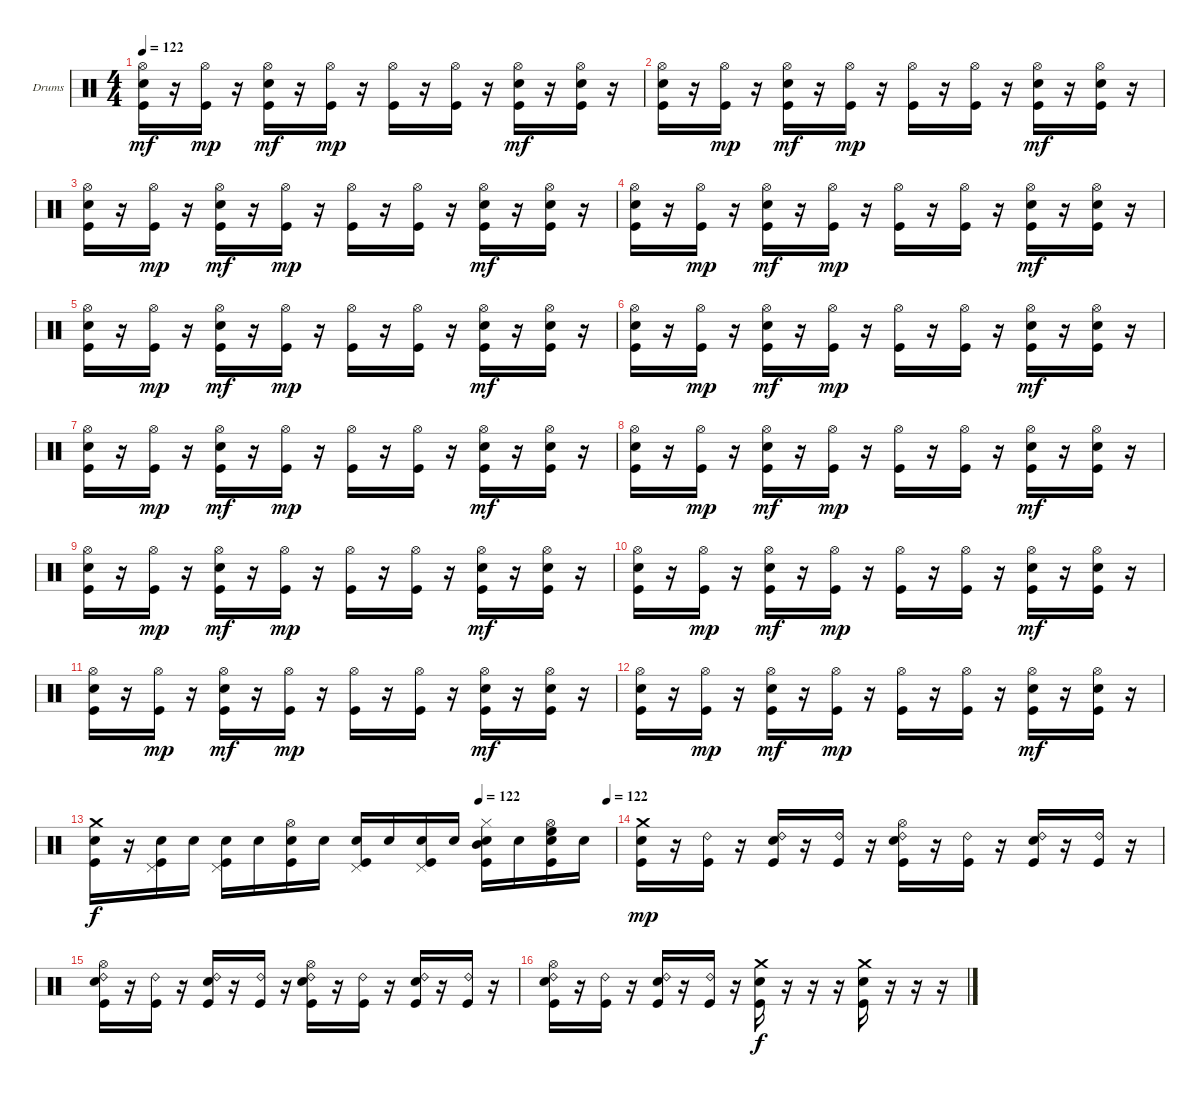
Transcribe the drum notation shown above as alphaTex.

\bracketExtendMode groupsimilarinstruments
\firstSystemTrackNameOrientation horizontal
\otherSystemsTrackNameOrientation horizontal
\track ("Drumkit" "Drums") {instrument percussion}
\staff {score}
\articulation defaults
\ts (4 4)
\tempo 122
\clef neutral
\ks c
("Hi-Hat (open)" "Snare (hit) 2" "Kick (hit)").16{dy mf} r.16 ("Hi-Hat (open)" "Kick (hit)").16{dy mp} r.16 ("Hi-Hat (open)" "Snare (hit) 2" "Kick (hit)").16{dy mf} r.16 ("Hi-Hat (open)" "Kick (hit)").16{dy mp} r.16 ("Hi-Hat (open)" "Kick (hit)").16 r.16 ("Hi-Hat (open)" "Kick (hit)").16 r.16 ("Hi-Hat (open)" "Snare (hit) 2" "Kick (hit)").16{dy mf} r.16 ("Hi-Hat (open)" "Snare (hit) 2" "Kick (hit)").16 r.16 |
("Hi-Hat (open)" "Snare (hit) 2" "Kick (hit)").16 r.16 ("Hi-Hat (open)" "Kick (hit)").16{dy mp} r.16 ("Hi-Hat (open)" "Snare (hit) 2" "Kick (hit)").16{dy mf} r.16 ("Hi-Hat (open)" "Kick (hit)").16{dy mp} r.16 ("Hi-Hat (open)" "Kick (hit)").16 r.16 ("Hi-Hat (open)" "Kick (hit)").16 r.16 ("Hi-Hat (open)" "Snare (hit) 2" "Kick (hit)").16{dy mf} r.16 ("Hi-Hat (open)" "Snare (hit) 2" "Kick (hit)").16 r.16 |
("Hi-Hat (open)" "Snare (hit) 2" "Kick (hit)").16 r.16 ("Hi-Hat (open)" "Kick (hit)").16{dy mp} r.16 ("Hi-Hat (open)" "Snare (hit) 2" "Kick (hit)").16{dy mf} r.16 ("Hi-Hat (open)" "Kick (hit)").16{dy mp} r.16 ("Hi-Hat (open)" "Kick (hit)").16 r.16 ("Hi-Hat (open)" "Kick (hit)").16 r.16 ("Hi-Hat (open)" "Snare (hit) 2" "Kick (hit)").16{dy mf} r.16 ("Hi-Hat (open)" "Snare (hit) 2" "Kick (hit)").16 r.16 |
("Hi-Hat (open)" "Snare (hit) 2" "Kick (hit)").16 r.16 ("Hi-Hat (open)" "Kick (hit)").16{dy mp} r.16 ("Hi-Hat (open)" "Snare (hit) 2" "Kick (hit)").16{dy mf} r.16 ("Hi-Hat (open)" "Kick (hit)").16{dy mp} r.16 ("Hi-Hat (open)" "Kick (hit)").16 r.16 ("Hi-Hat (open)" "Kick (hit)").16 r.16 ("Hi-Hat (open)" "Snare (hit) 2" "Kick (hit)").16{dy mf} r.16 ("Hi-Hat (open)" "Snare (hit) 2" "Kick (hit)").16 r.16 |
("Hi-Hat (open)" "Snare (hit) 2" "Kick (hit)").16 r.16 ("Hi-Hat (open)" "Kick (hit)").16{dy mp} r.16 ("Hi-Hat (open)" "Snare (hit) 2" "Kick (hit)").16{dy mf} r.16 ("Hi-Hat (open)" "Kick (hit)").16{dy mp} r.16 ("Hi-Hat (open)" "Kick (hit)").16 r.16 ("Hi-Hat (open)" "Kick (hit)").16 r.16 ("Hi-Hat (open)" "Snare (hit) 2" "Kick (hit)").16{dy mf} r.16 ("Hi-Hat (open)" "Snare (hit) 2" "Kick (hit)").16 r.16 |
("Hi-Hat (open)" "Snare (hit) 2" "Kick (hit)").16 r.16 ("Hi-Hat (open)" "Kick (hit)").16{dy mp} r.16 ("Hi-Hat (open)" "Snare (hit) 2" "Kick (hit)").16{dy mf} r.16 ("Hi-Hat (open)" "Kick (hit)").16{dy mp} r.16 ("Hi-Hat (open)" "Kick (hit)").16 r.16 ("Hi-Hat (open)" "Kick (hit)").16 r.16 ("Hi-Hat (open)" "Snare (hit) 2" "Kick (hit)").16{dy mf} r.16 ("Hi-Hat (open)" "Snare (hit) 2" "Kick (hit)").16 r.16 |
("Hi-Hat (open)" "Snare (hit) 2" "Kick (hit)").16 r.16 ("Hi-Hat (open)" "Kick (hit)").16{dy mp} r.16 ("Hi-Hat (open)" "Snare (hit) 2" "Kick (hit)").16{dy mf} r.16 ("Hi-Hat (open)" "Kick (hit)").16{dy mp} r.16 ("Hi-Hat (open)" "Kick (hit)").16 r.16 ("Hi-Hat (open)" "Kick (hit)").16 r.16 ("Hi-Hat (open)" "Snare (hit) 2" "Kick (hit)").16{dy mf} r.16 ("Hi-Hat (open)" "Snare (hit) 2" "Kick (hit)").16 r.16 |
("Hi-Hat (open)" "Snare (hit) 2" "Kick (hit)").16 r.16 ("Hi-Hat (open)" "Kick (hit)").16{dy mp} r.16 ("Hi-Hat (open)" "Snare (hit) 2" "Kick (hit)").16{dy mf} r.16 ("Hi-Hat (open)" "Kick (hit)").16{dy mp} r.16 ("Hi-Hat (open)" "Kick (hit)").16 r.16 ("Hi-Hat (open)" "Kick (hit)").16 r.16 ("Hi-Hat (open)" "Snare (hit) 2" "Kick (hit)").16{dy mf} r.16 ("Hi-Hat (open)" "Snare (hit) 2" "Kick (hit)").16 r.16 |
("Hi-Hat (open)" "Snare (hit) 2" "Kick (hit)").16 r.16 ("Hi-Hat (open)" "Kick (hit)").16{dy mp} r.16 ("Hi-Hat (open)" "Snare (hit) 2" "Kick (hit)").16{dy mf} r.16 ("Hi-Hat (open)" "Kick (hit)").16{dy mp} r.16 ("Hi-Hat (open)" "Kick (hit)").16 r.16 ("Hi-Hat (open)" "Kick (hit)").16 r.16 ("Hi-Hat (open)" "Snare (hit) 2" "Kick (hit)").16{dy mf} r.16 ("Hi-Hat (open)" "Snare (hit) 2" "Kick (hit)").16 r.16 |
("Hi-Hat (open)" "Snare (hit) 2" "Kick (hit)").16 r.16 ("Hi-Hat (open)" "Kick (hit)").16{dy mp} r.16 ("Hi-Hat (open)" "Snare (hit) 2" "Kick (hit)").16{dy mf} r.16 ("Hi-Hat (open)" "Kick (hit)").16{dy mp} r.16 ("Hi-Hat (open)" "Kick (hit)").16 r.16 ("Hi-Hat (open)" "Kick (hit)").16 r.16 ("Hi-Hat (open)" "Snare (hit) 2" "Kick (hit)").16{dy mf} r.16 ("Hi-Hat (open)" "Snare (hit) 2" "Kick (hit)").16 r.16 |
("Hi-Hat (open)" "Snare (hit) 2" "Kick (hit)").16 r.16 ("Hi-Hat (open)" "Kick (hit)").16{dy mp} r.16 ("Hi-Hat (open)" "Snare (hit) 2" "Kick (hit)").16{dy mf} r.16 ("Hi-Hat (open)" "Kick (hit)").16{dy mp} r.16 ("Hi-Hat (open)" "Kick (hit)").16 r.16 ("Hi-Hat (open)" "Kick (hit)").16 r.16 ("Hi-Hat (open)" "Snare (hit) 2" "Kick (hit)").16{dy mf} r.16 ("Hi-Hat (open)" "Snare (hit) 2" "Kick (hit)").16 r.16 |
("Hi-Hat (open)" "Snare (hit) 2" "Kick (hit)").16 r.16 ("Hi-Hat (open)" "Kick (hit)").16{dy mp} r.16 ("Hi-Hat (open)" "Snare (hit) 2" "Kick (hit)").16{dy mf} r.16 ("Hi-Hat (open)" "Kick (hit)").16{dy mp} r.16 ("Hi-Hat (open)" "Kick (hit)").16 r.16 ("Hi-Hat (open)" "Kick (hit)").16 r.16 ("Hi-Hat (open)" "Snare (hit) 2" "Kick (hit)").16{dy mf} r.16 ("Hi-Hat (open)" "Snare (hit) 2" "Kick (hit)").16 r.16 |
\tempo (122 0.738462)
\tempo (122 0.984615)
("Crash medium (hit)" "Snare (hit) 2" "Kick (hit)").16{dy f} r.16 ("Pedal Hi-Hat (hit)" "Snare (hit) 2" "Kick (hit)").16 "Snare (hit) 2".16 ("Pedal Hi-Hat (hit)" "Snare (hit) 2" "Kick (hit)").16 "Snare (hit) 2".16 ("Hi-Hat (open)" "Snare (hit) 2" "Kick (hit)").16 "Snare (hit) 2".16 ("Pedal Hi-Hat (hit)" "Snare (hit) 2" "Kick (hit)").16 "Snare (hit) 2".16 ("Pedal Hi-Hat (hit)" "Snare (hit) 2" "Kick (hit)").16 "Snare (hit) 2".16 ("Hi-Hat (closed)" "Snare (hit) 2" "Mid Tom (hit)" "Kick (hit)").16 "Snare (hit) 2".16 ("Hi-Hat (open)" "Snare (hit) 2" "High Floor Tom (hit)" "Kick (hit)").16 "Snare (hit) 2".16 |
\section ("" "")
("Crash medium (hit)" "Snare (hit) 2" "Kick (hit)").16{dy mp} r.16 ("Ride (bell) 2" "Kick (hit)").16 r.16 ("Ride (bell) 2" "Snare (hit) 2" "Kick (hit)").16 r.16 ("Ride (bell) 2" "Kick (hit)").16 r.16 ("Ride (bell) 2" "Hi-Hat (open)" "Snare (hit) 2" "Kick (hit)").16 r.16 ("Ride (bell) 2" "Kick (hit)").16 r.16 ("Ride (bell) 2" "Snare (hit) 2" "Kick (hit)").16 r.16 ("Ride (bell) 2" "Kick (hit)").16 r.16 |
("Ride (bell) 2" "Hi-Hat (open)" "Snare (hit) 2" "Kick (hit)").16 r.16 ("Ride (bell) 2" "Kick (hit)").16 r.16 ("Ride (bell) 2" "Snare (hit) 2" "Kick (hit)").16 r.16 ("Ride (bell) 2" "Kick (hit)").16 r.16 ("Ride (bell) 2" "Hi-Hat (open)" "Snare (hit) 2" "Kick (hit)").16 r.16 ("Ride (bell) 2" "Kick (hit)").16 r.16 ("Ride (bell) 2" "Snare (hit) 2" "Kick (hit)").16 r.16 ("Ride (bell) 2" "Kick (hit)").16 r.16 |
("Ride (bell) 2" "Hi-Hat (open)" "Snare (hit) 2" "Kick (hit)").16 r.16 ("Ride (bell) 2" "Kick (hit)").16 r.16 ("Ride (bell) 2" "Snare (hit) 2" "Kick (hit)").16 r.16 ("Ride (bell) 2" "Kick (hit)").16 r.16 ("Crash medium (hit)" "Snare (hit) 2" "Kick (hit)").16{dy f} r.16 r.16 r.16 ("Crash medium (hit)" "Snare (hit) 2" "Kick (hit)").16 r.16 r.16 r.16
